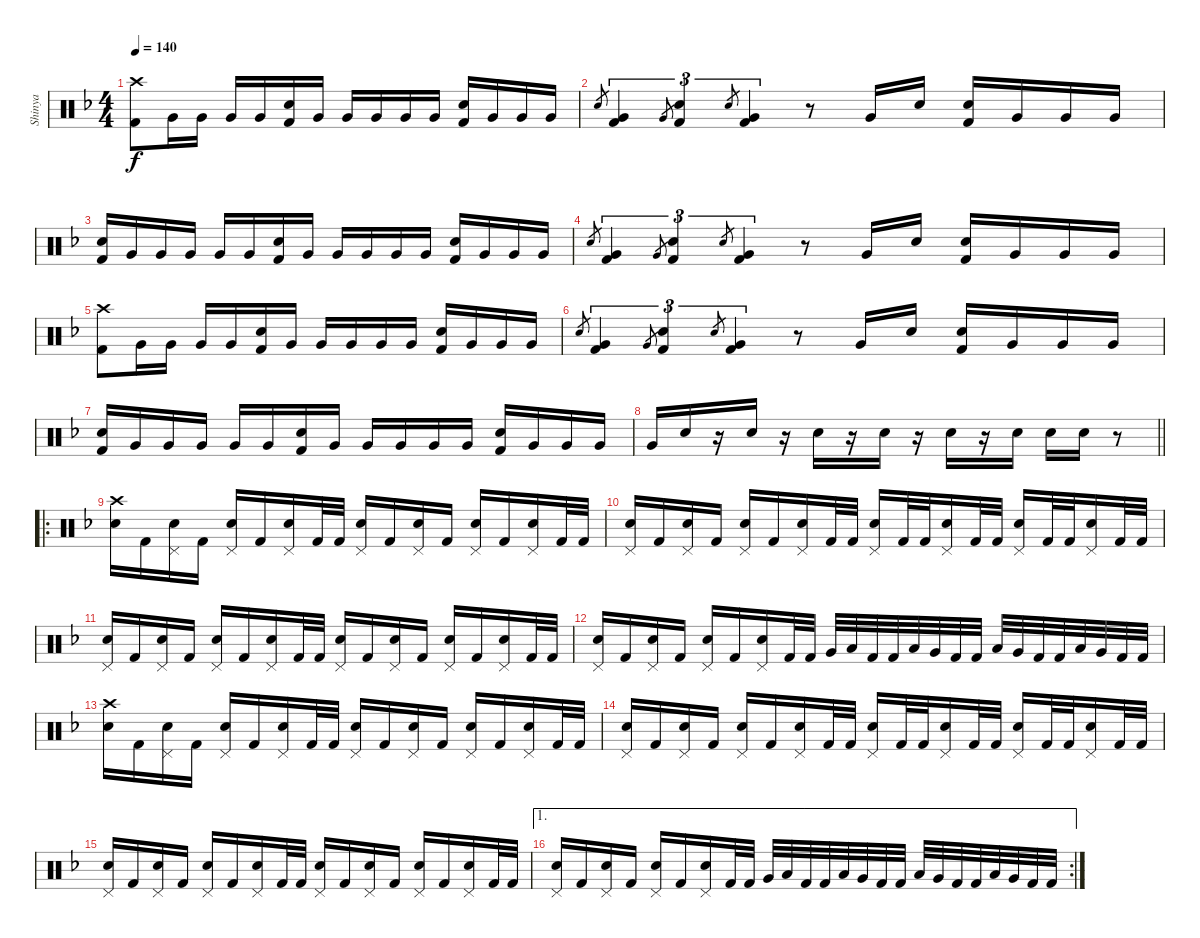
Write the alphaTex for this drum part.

\track ("Shinya" "Shinya") {instrument percussion}
\staff {score}
\articulation defaults
\ts (4 4)
\tempo 140
\clef neutral
\ks dminor
("Crash high (hit)" "Kick (hit) 2").8{dy f} "Very Low Tom (hit)".16 "Very Low Tom (hit)".16 "Very Low Tom (hit)".16 "Very Low Tom (hit)".16 ("Electric Snare (hit)" "Kick (hit) 2").16 "Very Low Tom (hit)".16 "Very Low Tom (hit)".16 "Very Low Tom (hit)".16 "Very Low Tom (hit)".16 "Very Low Tom (hit)".16 ("Electric Snare (hit)" "Kick (hit) 2").16 "Very Low Tom (hit)".16 "Very Low Tom (hit)".16 "Very Low Tom (hit)".16 |
"Electric Snare (hit)".8{gr} ("Very Low Tom (hit)" "Kick (hit) 2").4{tu (3 2)} "Very Low Tom (hit)".8{gr} ("Electric Snare (hit)" "Kick (hit) 2").4{tu (3 2)} "Electric Snare (hit)".8{gr} ("Very Low Tom (hit)" "Kick (hit) 2").4{tu (3 2)} r.8 "Very Low Tom (hit)".16 "Electric Snare (hit)".16 ("Electric Snare (hit)" "Kick (hit) 2").16 "Very Low Tom (hit)".16 "Very Low Tom (hit)".16 "Very Low Tom (hit)".16 |
("Electric Snare (hit)" "Kick (hit) 2").16 "Very Low Tom (hit)".16 "Very Low Tom (hit)".16 "Very Low Tom (hit)".16 "Very Low Tom (hit)".16 "Very Low Tom (hit)".16 ("Electric Snare (hit)" "Kick (hit) 2").16 "Very Low Tom (hit)".16 "Very Low Tom (hit)".16 "Very Low Tom (hit)".16 "Very Low Tom (hit)".16 "Very Low Tom (hit)".16 ("Electric Snare (hit)" "Kick (hit) 2").16 "Very Low Tom (hit)".16 "Very Low Tom (hit)".16 "Very Low Tom (hit)".16 |
"Electric Snare (hit)".8{gr} ("Very Low Tom (hit)" "Kick (hit) 2").4{tu (3 2)} "Very Low Tom (hit)".8{gr} ("Electric Snare (hit)" "Kick (hit) 2").4{tu (3 2)} "Electric Snare (hit)".8{gr} ("Very Low Tom (hit)" "Kick (hit) 2").4{tu (3 2)} r.8 "Very Low Tom (hit)".16 "Electric Snare (hit)".16 ("Electric Snare (hit)" "Kick (hit) 2").16 "Very Low Tom (hit)".16 "Very Low Tom (hit)".16 "Very Low Tom (hit)".16 |
("Crash high (hit)" "Kick (hit) 2").8 "Very Low Tom (hit)".16 "Very Low Tom (hit)".16 "Very Low Tom (hit)".16 "Very Low Tom (hit)".16 ("Electric Snare (hit)" "Kick (hit) 2").16 "Very Low Tom (hit)".16 "Very Low Tom (hit)".16 "Very Low Tom (hit)".16 "Very Low Tom (hit)".16 "Very Low Tom (hit)".16 ("Electric Snare (hit)" "Kick (hit) 2").16 "Very Low Tom (hit)".16 "Very Low Tom (hit)".16 "Very Low Tom (hit)".16 |
"Electric Snare (hit)".8{gr} ("Very Low Tom (hit)" "Kick (hit) 2").4{tu (3 2)} "Very Low Tom (hit)".8{gr} ("Electric Snare (hit)" "Kick (hit) 2").4{tu (3 2)} "Electric Snare (hit)".8{gr} ("Very Low Tom (hit)" "Kick (hit) 2").4{tu (3 2)} r.8 "Very Low Tom (hit)".16 "Electric Snare (hit)".16 ("Electric Snare (hit)" "Kick (hit) 2").16 "Very Low Tom (hit)".16 "Very Low Tom (hit)".16 "Very Low Tom (hit)".16 |
("Electric Snare (hit)" "Kick (hit) 2").16 "Very Low Tom (hit)".16 "Very Low Tom (hit)".16 "Very Low Tom (hit)".16 "Very Low Tom (hit)".16 "Very Low Tom (hit)".16 ("Electric Snare (hit)" "Kick (hit) 2").16 "Very Low Tom (hit)".16 "Very Low Tom (hit)".16 "Very Low Tom (hit)".16 "Very Low Tom (hit)".16 "Very Low Tom (hit)".16 ("Electric Snare (hit)" "Kick (hit) 2").16 "Very Low Tom (hit)".16 "Very Low Tom (hit)".16 "Very Low Tom (hit)".16 |
\barLineRight lightlight "Very Low Tom (hit)".16 "Electric Snare (hit)".16
r.16 "Electric Snare (hit)".16 r.16 "Electric Snare (hit)".16 r.16 "Electric Snare (hit)".16 r.16 "Electric Snare (hit)".16 r.16 "Electric Snare (hit)".16 "Electric Snare (hit)".16 "Electric Snare (hit)".16 r.8 |
\ro
("Crash high (hit)" "Electric Snare (hit)").16 "Kick (hit) 2".16 ("Pedal Hi-Hat (hit)" "Electric Snare (hit)").16 "Kick (hit) 2".16 ("Pedal Hi-Hat (hit)" "Electric Snare (hit)").16 "Kick (hit) 2".16 ("Pedal Hi-Hat (hit)" "Electric Snare (hit)").16 "Kick (hit) 2".32 "Kick (hit) 2".32 ("Pedal Hi-Hat (hit)" "Electric Snare (hit)").16 "Kick (hit) 2".16 ("Pedal Hi-Hat (hit)" "Electric Snare (hit)").16 "Kick (hit) 2".16 ("Pedal Hi-Hat (hit)" "Electric Snare (hit)").16 "Kick (hit) 2".16 ("Pedal Hi-Hat (hit)" "Electric Snare (hit)").16 "Kick (hit) 2".32 "Kick (hit) 2".32 |
("Pedal Hi-Hat (hit)" "Electric Snare (hit)").16 "Kick (hit) 2".16 ("Pedal Hi-Hat (hit)" "Electric Snare (hit)").16 "Kick (hit) 2".16 ("Pedal Hi-Hat (hit)" "Electric Snare (hit)").16 "Kick (hit) 2".16 ("Pedal Hi-Hat (hit)" "Electric Snare (hit)").16 "Kick (hit) 2".32 "Kick (hit) 2".32 ("Pedal Hi-Hat (hit)" "Electric Snare (hit)").16 "Kick (hit) 2".32 "Kick (hit) 2".32 ("Pedal Hi-Hat (hit)" "Electric Snare (hit)").16 "Kick (hit) 2".32 "Kick (hit) 2".32 ("Pedal Hi-Hat (hit)" "Electric Snare (hit)").16 "Kick (hit) 2".32 "Kick (hit) 2".32 ("Pedal Hi-Hat (hit)" "Electric Snare (hit)").16 "Kick (hit) 2".32 "Kick (hit) 2".32 |
("Pedal Hi-Hat (hit)" "Electric Snare (hit)").16 "Kick (hit) 2".16 ("Pedal Hi-Hat (hit)" "Electric Snare (hit)").16 "Kick (hit) 2".16 ("Pedal Hi-Hat (hit)" "Electric Snare (hit)").16 "Kick (hit) 2".16 ("Pedal Hi-Hat (hit)" "Electric Snare (hit)").16 "Kick (hit) 2".32 "Kick (hit) 2".32 ("Pedal Hi-Hat (hit)" "Electric Snare (hit)").16 "Kick (hit) 2".16 ("Pedal Hi-Hat (hit)" "Electric Snare (hit)").16 "Kick (hit) 2".16 ("Pedal Hi-Hat (hit)" "Electric Snare (hit)").16 "Kick (hit) 2".16 ("Pedal Hi-Hat (hit)" "Electric Snare (hit)").16 "Kick (hit) 2".32 "Kick (hit) 2".32 |
("Pedal Hi-Hat (hit)" "Electric Snare (hit)").16 "Kick (hit) 2".16 ("Pedal Hi-Hat (hit)" "Electric Snare (hit)").16 "Kick (hit) 2".16 ("Pedal Hi-Hat (hit)" "Electric Snare (hit)").16 "Kick (hit) 2".16 ("Pedal Hi-Hat (hit)" "Electric Snare (hit)").16 "Kick (hit) 2".32 "Kick (hit) 2".32 "Very Low Tom (hit)".32 "Low Tom (hit)".32 "Kick (hit) 2".32 "Kick (hit) 2".32 "Low Floor Tom (hit)".32 "Very Low Tom (hit)".32 "Kick (hit) 2".32 "Kick (hit) 2".32 "Low Floor Tom (hit)".32 "Very Low Tom (hit)".32 "Kick (hit) 2".32 "Kick (hit) 2".32 "Low Floor Tom (hit)".32 "Very Low Tom (hit)".32 "Kick (hit) 2".32 "Kick (hit) 2".32 |
("Crash high (hit)" "Electric Snare (hit)").16 "Kick (hit) 2".16 ("Pedal Hi-Hat (hit)" "Electric Snare (hit)").16 "Kick (hit) 2".16 ("Pedal Hi-Hat (hit)" "Electric Snare (hit)").16 "Kick (hit) 2".16 ("Pedal Hi-Hat (hit)" "Electric Snare (hit)").16 "Kick (hit) 2".32 "Kick (hit) 2".32 ("Pedal Hi-Hat (hit)" "Electric Snare (hit)").16 "Kick (hit) 2".16 ("Pedal Hi-Hat (hit)" "Electric Snare (hit)").16 "Kick (hit) 2".16 ("Pedal Hi-Hat (hit)" "Electric Snare (hit)").16 "Kick (hit) 2".16 ("Pedal Hi-Hat (hit)" "Electric Snare (hit)").16 "Kick (hit) 2".32 "Kick (hit) 2".32 |
("Pedal Hi-Hat (hit)" "Electric Snare (hit)").16 "Kick (hit) 2".16 ("Pedal Hi-Hat (hit)" "Electric Snare (hit)").16 "Kick (hit) 2".16 ("Pedal Hi-Hat (hit)" "Electric Snare (hit)").16 "Kick (hit) 2".16 ("Pedal Hi-Hat (hit)" "Electric Snare (hit)").16 "Kick (hit) 2".32 "Kick (hit) 2".32 ("Pedal Hi-Hat (hit)" "Electric Snare (hit)").16 "Kick (hit) 2".32 "Kick (hit) 2".32 ("Pedal Hi-Hat (hit)" "Electric Snare (hit)").16 "Kick (hit) 2".32 "Kick (hit) 2".32 ("Pedal Hi-Hat (hit)" "Electric Snare (hit)").16 "Kick (hit) 2".32 "Kick (hit) 2".32 ("Pedal Hi-Hat (hit)" "Electric Snare (hit)").16 "Kick (hit) 2".32 "Kick (hit) 2".32 |
("Pedal Hi-Hat (hit)" "Electric Snare (hit)").16 "Kick (hit) 2".16 ("Pedal Hi-Hat (hit)" "Electric Snare (hit)").16 "Kick (hit) 2".16 ("Pedal Hi-Hat (hit)" "Electric Snare (hit)").16 "Kick (hit) 2".16 ("Pedal Hi-Hat (hit)" "Electric Snare (hit)").16 "Kick (hit) 2".32 "Kick (hit) 2".32 ("Pedal Hi-Hat (hit)" "Electric Snare (hit)").16 "Kick (hit) 2".16 ("Pedal Hi-Hat (hit)" "Electric Snare (hit)").16 "Kick (hit) 2".16 ("Pedal Hi-Hat (hit)" "Electric Snare (hit)").16 "Kick (hit) 2".16 ("Pedal Hi-Hat (hit)" "Electric Snare (hit)").16 "Kick (hit) 2".32 "Kick (hit) 2".32 |
\ae 1
\rc 2
("Pedal Hi-Hat (hit)" "Electric Snare (hit)").16 "Kick (hit) 2".16 ("Pedal Hi-Hat (hit)" "Electric Snare (hit)").16 "Kick (hit) 2".16 ("Pedal Hi-Hat (hit)" "Electric Snare (hit)").16 "Kick (hit) 2".16 ("Pedal Hi-Hat (hit)" "Electric Snare (hit)").16 "Kick (hit) 2".32 "Kick (hit) 2".32 "Very Low Tom (hit)".32 "Low Tom (hit)".32 "Kick (hit) 2".32 "Kick (hit) 2".32 "Low Floor Tom (hit)".32 "Very Low Tom (hit)".32 "Kick (hit) 2".32 "Kick (hit) 2".32 "Low Floor Tom (hit)".32 "Very Low Tom (hit)".32 "Kick (hit) 2".32 "Kick (hit) 2".32 "Low Floor Tom (hit)".32 "Very Low Tom (hit)".32 "Kick (hit) 2".32 "Kick (hit) 2".32
